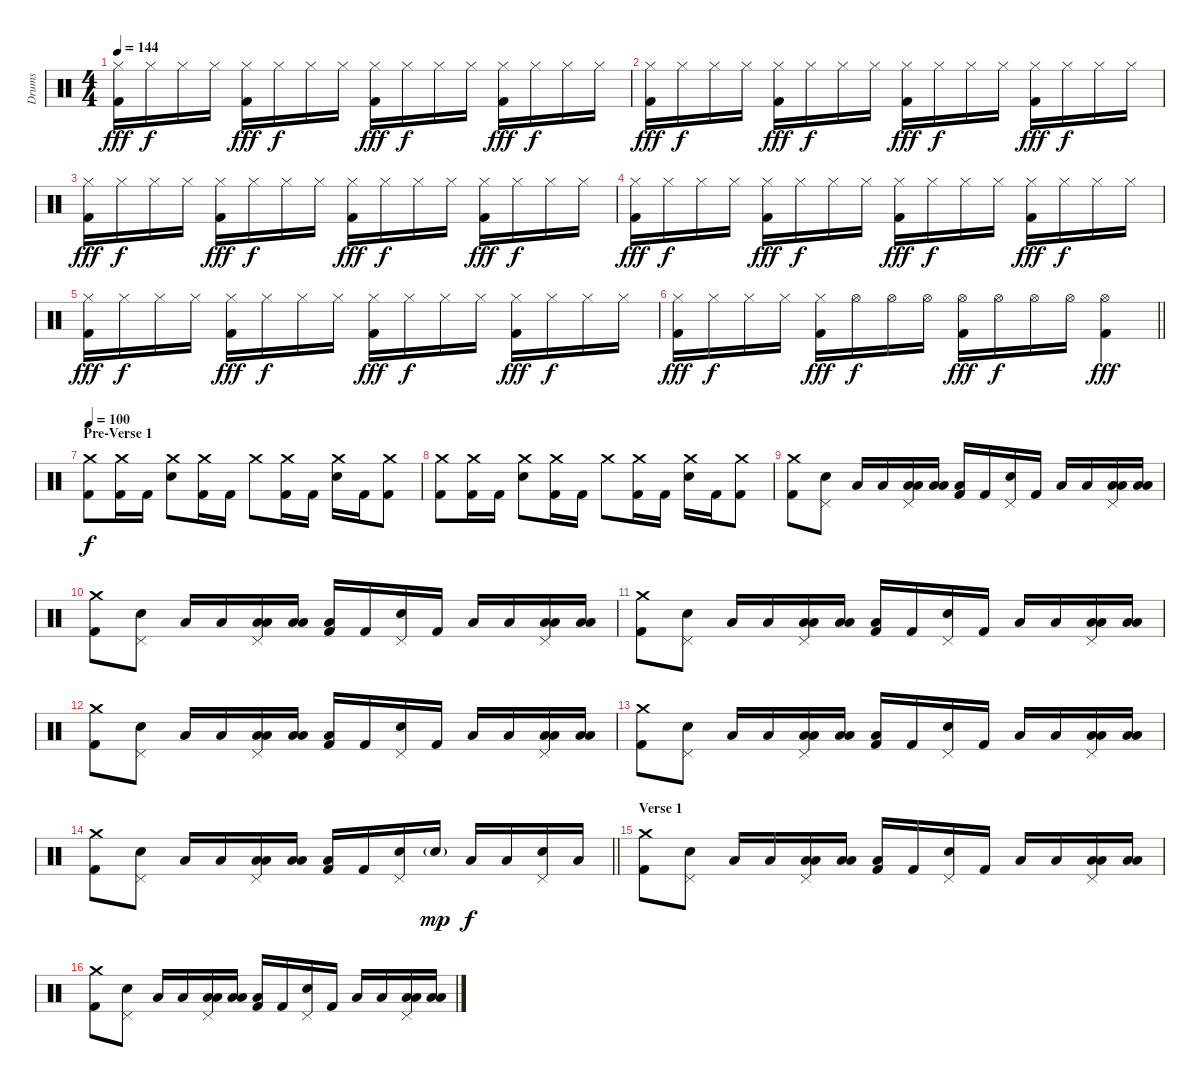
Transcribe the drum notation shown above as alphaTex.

\track ("Drums" "Drums") {instrument percussion}
\staff {score}
\articulation defaults
\ts (4 4)
\tempo 144
\clef neutral
\ks c
("Hi-Hat (closed)" "Kick (hit) 2").16{dy fff} "Hi-Hat (closed)".16{dy f} "Hi-Hat (closed)".16 "Hi-Hat (closed)".16 ("Hi-Hat (closed)" "Kick (hit) 2").16{dy fff} "Hi-Hat (closed)".16{dy f} "Hi-Hat (closed)".16 "Hi-Hat (closed)".16 ("Hi-Hat (closed)" "Kick (hit) 2").16{dy fff} "Hi-Hat (closed)".16{dy f} "Hi-Hat (closed)".16 "Hi-Hat (closed)".16 ("Hi-Hat (closed)" "Kick (hit) 2").16{dy fff} "Hi-Hat (closed)".16{dy f} "Hi-Hat (closed)".16 "Hi-Hat (closed)".16 |
("Hi-Hat (closed)" "Kick (hit) 2").16{dy fff} "Hi-Hat (closed)".16{dy f} "Hi-Hat (closed)".16 "Hi-Hat (closed)".16 ("Hi-Hat (closed)" "Kick (hit) 2").16{dy fff} "Hi-Hat (closed)".16{dy f} "Hi-Hat (closed)".16 "Hi-Hat (closed)".16 ("Hi-Hat (closed)" "Kick (hit) 2").16{dy fff} "Hi-Hat (closed)".16{dy f} "Hi-Hat (closed)".16 "Hi-Hat (closed)".16 ("Hi-Hat (closed)" "Kick (hit) 2").16{dy fff} "Hi-Hat (closed)".16{dy f} "Hi-Hat (closed)".16 "Hi-Hat (closed)".16 |
("Hi-Hat (closed)" "Kick (hit) 2").16{dy fff} "Hi-Hat (closed)".16{dy f} "Hi-Hat (closed)".16 "Hi-Hat (closed)".16 ("Hi-Hat (closed)" "Kick (hit) 2").16{dy fff} "Hi-Hat (closed)".16{dy f} "Hi-Hat (closed)".16 "Hi-Hat (closed)".16 ("Hi-Hat (closed)" "Kick (hit) 2").16{dy fff} "Hi-Hat (closed)".16{dy f} "Hi-Hat (closed)".16 "Hi-Hat (closed)".16 ("Hi-Hat (closed)" "Kick (hit) 2").16{dy fff} "Hi-Hat (closed)".16{dy f} "Hi-Hat (closed)".16 "Hi-Hat (closed)".16 |
("Hi-Hat (closed)" "Kick (hit) 2").16{dy fff} "Hi-Hat (closed)".16{dy f} "Hi-Hat (closed)".16 "Hi-Hat (closed)".16 ("Hi-Hat (closed)" "Kick (hit) 2").16{dy fff} "Hi-Hat (closed)".16{dy f} "Hi-Hat (closed)".16 "Hi-Hat (closed)".16 ("Hi-Hat (closed)" "Kick (hit) 2").16{dy fff} "Hi-Hat (closed)".16{dy f} "Hi-Hat (closed)".16 "Hi-Hat (closed)".16 ("Hi-Hat (closed)" "Kick (hit) 2").16{dy fff} "Hi-Hat (closed)".16{dy f} "Hi-Hat (closed)".16 "Hi-Hat (closed)".16 |
("Hi-Hat (closed)" "Kick (hit) 2").16{dy fff} "Hi-Hat (closed)".16{dy f} "Hi-Hat (closed)".16 "Hi-Hat (closed)".16 ("Hi-Hat (closed)" "Kick (hit) 2").16{dy fff} "Hi-Hat (closed)".16{dy f} "Hi-Hat (closed)".16 "Hi-Hat (closed)".16 ("Hi-Hat (closed)" "Kick (hit) 2").16{dy fff} "Hi-Hat (closed)".16{dy f} "Hi-Hat (closed)".16 "Hi-Hat (closed)".16 ("Hi-Hat (closed)" "Kick (hit) 2").16{dy fff} "Hi-Hat (closed)".16{dy f} "Hi-Hat (closed)".16 "Hi-Hat (closed)".16 |
\barLineRight lightlight
("Hi-Hat (closed)" "Kick (hit) 2").16{dy fff} "Hi-Hat (closed)".16{dy f} "Hi-Hat (closed)".16 "Hi-Hat (closed)".16 ("Hi-Hat (closed)" "Kick (hit) 2").16{dy fff} "Hi-Hat (open)".16{dy f} "Hi-Hat (open)".16 "Hi-Hat (open)".16 ("Hi-Hat (open)" "Kick (hit) 2").16{dy fff} "Hi-Hat (open)".16{dy f} "Hi-Hat (open)".16 "Hi-Hat (open)".16 ("Hi-Hat (open)" "Kick (hit) 2").4{dy fff} |
\section ("" "Pre-Verse 1")
\tempo 100
("Crash medium (hit)" "Kick (hit) 2").8{dy f} ("Crash medium (hit)" "Kick (hit) 2").16 "Kick (hit) 2".16 ("Crash medium (hit)" "Electric Snare (hit)").8 ("Crash medium (hit)" "Kick (hit) 2").16 "Kick (hit) 2".16 "Crash medium (hit)".8 ("Crash medium (hit)" "Kick (hit) 2").16 "Kick (hit) 2".16 ("Crash medium (hit)" "Electric Snare (hit)").16 "Kick (hit) 2".16 ("Crash medium (hit)" "Kick (hit) 2").8 |
("Crash medium (hit)" "Kick (hit) 2").8 ("Crash medium (hit)" "Kick (hit) 2").16 "Kick (hit) 2".16 ("Crash medium (hit)" "Electric Snare (hit)").8 ("Crash medium (hit)" "Kick (hit) 2").16 "Kick (hit) 2".16 "Crash medium (hit)".8 ("Crash medium (hit)" "Kick (hit) 2").16 "Kick (hit) 2".16 ("Crash medium (hit)" "Electric Snare (hit)").16 "Kick (hit) 2".16 ("Crash medium (hit)" "Kick (hit) 2").8 |
("Crash medium (hit)" "Kick (hit) 2").8 ("Pedal Hi-Hat (hit)" "Electric Snare (hit)").8 "Low Floor Tom (hit)".16 "Low Floor Tom (hit)".16 ("Pedal Hi-Hat (hit)" "Low Tom (hit)" "Low Floor Tom (hit)").16 ("Low Tom (hit)" "Low Floor Tom (hit)").16 ("Low Floor Tom (hit)" "Kick (hit) 2").16 "Kick (hit) 2".16 ("Pedal Hi-Hat (hit)" "Electric Snare (hit)").16 "Kick (hit) 2".16 "Low Floor Tom (hit)".16 "Low Floor Tom (hit)".16 ("Pedal Hi-Hat (hit)" "Low Tom (hit)" "Low Floor Tom (hit)").16 ("Low Tom (hit)" "Low Floor Tom (hit)").16 |
("Crash medium (hit)" "Kick (hit) 2").8 ("Pedal Hi-Hat (hit)" "Electric Snare (hit)").8 "Low Floor Tom (hit)".16 "Low Floor Tom (hit)".16 ("Pedal Hi-Hat (hit)" "Low Tom (hit)" "Low Floor Tom (hit)").16 ("Low Tom (hit)" "Low Floor Tom (hit)").16 ("Low Floor Tom (hit)" "Kick (hit) 2").16 "Kick (hit) 2".16 ("Pedal Hi-Hat (hit)" "Electric Snare (hit)").16 "Kick (hit) 2".16 "Low Floor Tom (hit)".16 "Low Floor Tom (hit)".16 ("Pedal Hi-Hat (hit)" "Low Tom (hit)" "Low Floor Tom (hit)").16 ("Low Tom (hit)" "Low Floor Tom (hit)").16 |
("Crash medium (hit)" "Kick (hit) 2").8 ("Pedal Hi-Hat (hit)" "Electric Snare (hit)").8 "Low Floor Tom (hit)".16 "Low Floor Tom (hit)".16 ("Pedal Hi-Hat (hit)" "Low Tom (hit)" "Low Floor Tom (hit)").16 ("Low Tom (hit)" "Low Floor Tom (hit)").16 ("Low Floor Tom (hit)" "Kick (hit) 2").16 "Kick (hit) 2".16 ("Pedal Hi-Hat (hit)" "Electric Snare (hit)").16 "Kick (hit) 2".16 "Low Floor Tom (hit)".16 "Low Floor Tom (hit)".16 ("Pedal Hi-Hat (hit)" "Low Tom (hit)" "Low Floor Tom (hit)").16 ("Low Tom (hit)" "Low Floor Tom (hit)").16 |
("Crash medium (hit)" "Kick (hit) 2").8 ("Pedal Hi-Hat (hit)" "Electric Snare (hit)").8 "Low Floor Tom (hit)".16 "Low Floor Tom (hit)".16 ("Pedal Hi-Hat (hit)" "Low Tom (hit)" "Low Floor Tom (hit)").16 ("Low Tom (hit)" "Low Floor Tom (hit)").16 ("Low Floor Tom (hit)" "Kick (hit) 2").16 "Kick (hit) 2".16 ("Pedal Hi-Hat (hit)" "Electric Snare (hit)").16 "Kick (hit) 2".16 "Low Floor Tom (hit)".16 "Low Floor Tom (hit)".16 ("Pedal Hi-Hat (hit)" "Low Tom (hit)" "Low Floor Tom (hit)").16 ("Low Tom (hit)" "Low Floor Tom (hit)").16 |
("Crash medium (hit)" "Kick (hit) 2").8 ("Pedal Hi-Hat (hit)" "Electric Snare (hit)").8 "Low Floor Tom (hit)".16 "Low Floor Tom (hit)".16 ("Pedal Hi-Hat (hit)" "Low Tom (hit)" "Low Floor Tom (hit)").16 ("Low Tom (hit)" "Low Floor Tom (hit)").16 ("Low Floor Tom (hit)" "Kick (hit) 2").16 "Kick (hit) 2".16 ("Pedal Hi-Hat (hit)" "Electric Snare (hit)").16 "Kick (hit) 2".16 "Low Floor Tom (hit)".16 "Low Floor Tom (hit)".16 ("Pedal Hi-Hat (hit)" "Low Tom (hit)" "Low Floor Tom (hit)").16 ("Low Tom (hit)" "Low Floor Tom (hit)").16 |
\barLineRight lightlight
("Crash medium (hit)" "Kick (hit) 2").8 ("Pedal Hi-Hat (hit)" "Electric Snare (hit)").8 "Low Floor Tom (hit)".16 "Low Floor Tom (hit)".16 ("Pedal Hi-Hat (hit)" "Low Tom (hit)" "Low Floor Tom (hit)").16 ("Low Tom (hit)" "Low Floor Tom (hit)").16 ("Low Floor Tom (hit)" "Kick (hit) 2").16 "Kick (hit) 2".16 ("Pedal Hi-Hat (hit)" "Electric Snare (hit)").16 "Electric Snare (hit)"{g}.16{dy mp} "Low Floor Tom (hit)".16{dy f} "Low Floor Tom (hit)".16 ("Pedal Hi-Hat (hit)" "Electric Snare (hit)").16 "Low Floor Tom (hit)".16 |
\section ("" "Verse 1")
("Crash medium (hit)" "Kick (hit) 2").8 ("Pedal Hi-Hat (hit)" "Electric Snare (hit)").8 "Low Floor Tom (hit)".16 "Low Floor Tom (hit)".16 ("Pedal Hi-Hat (hit)" "Low Tom (hit)" "Low Floor Tom (hit)").16 ("Low Tom (hit)" "Low Floor Tom (hit)").16 ("Low Floor Tom (hit)" "Kick (hit) 2").16 "Kick (hit) 2".16 ("Pedal Hi-Hat (hit)" "Electric Snare (hit)").16 "Kick (hit) 2".16 "Low Floor Tom (hit)".16 "Low Floor Tom (hit)".16 ("Pedal Hi-Hat (hit)" "Low Tom (hit)" "Low Floor Tom (hit)").16 ("Low Tom (hit)" "Low Floor Tom (hit)").16 |
("Crash medium (hit)" "Kick (hit) 2").8 ("Pedal Hi-Hat (hit)" "Electric Snare (hit)").8 "Low Floor Tom (hit)".16 "Low Floor Tom (hit)".16 ("Pedal Hi-Hat (hit)" "Low Tom (hit)" "Low Floor Tom (hit)").16 ("Low Tom (hit)" "Low Floor Tom (hit)").16 ("Low Floor Tom (hit)" "Kick (hit) 2").16 "Kick (hit) 2".16 ("Pedal Hi-Hat (hit)" "Electric Snare (hit)").16 "Kick (hit) 2".16 "Low Floor Tom (hit)".16 "Low Floor Tom (hit)".16 ("Pedal Hi-Hat (hit)" "Low Tom (hit)" "Low Floor Tom (hit)").16 ("Low Tom (hit)" "Low Floor Tom (hit)").16
